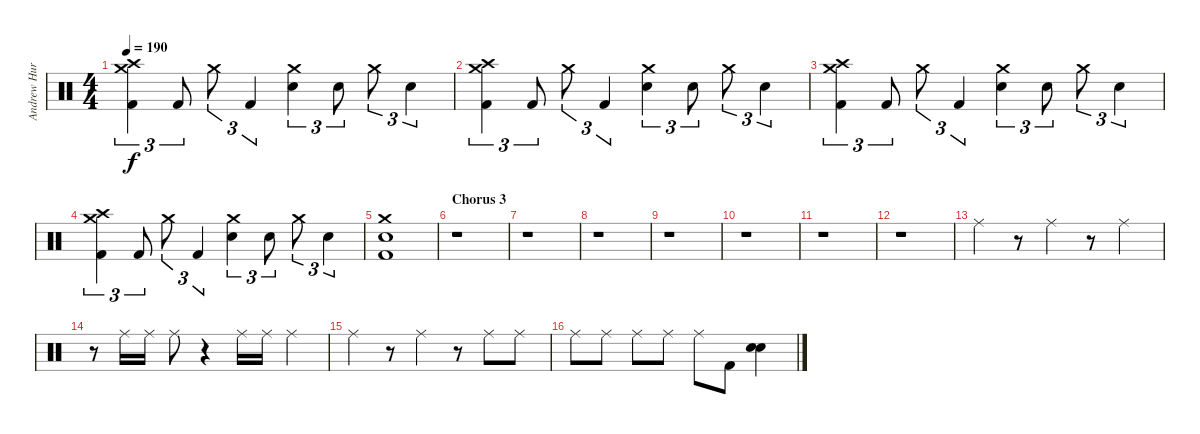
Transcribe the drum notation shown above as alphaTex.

\track ("Andrew Hurley (Drums)" "Andrew Hur") {instrument percussion}
\staff {score}
\articulation defaults
\ts (4 4)
\tempo 190
\clef neutral
\ks c
("Crash high (hit)" "Crash medium (hit)" "Kick (hit) 2").4{tu (3 2) dy f} "Kick (hit) 2".8{tu (3 2)} "Crash medium (hit)".8{tu (3 2)} "Kick (hit) 2".4{tu (3 2)} ("Crash medium (hit)" "Electric Snare (hit)").4{tu (3 2)} "Electric Snare (hit)".8{tu (3 2)} "Crash medium (hit)".8{tu (3 2)} "Electric Snare (hit)".4{tu (3 2)} |
("Crash high (hit)" "Crash medium (hit)" "Kick (hit) 2").4{tu (3 2)} "Kick (hit) 2".8{tu (3 2)} "Crash medium (hit)".8{tu (3 2)} "Kick (hit) 2".4{tu (3 2)} ("Crash medium (hit)" "Electric Snare (hit)").4{tu (3 2)} "Electric Snare (hit)".8{tu (3 2)} "Crash medium (hit)".8{tu (3 2)} "Electric Snare (hit)".4{tu (3 2)} |
("Crash high (hit)" "Crash medium (hit)" "Kick (hit) 2").4{tu (3 2)} "Kick (hit) 2".8{tu (3 2)} "Crash medium (hit)".8{tu (3 2)} "Kick (hit) 2".4{tu (3 2)} ("Crash medium (hit)" "Electric Snare (hit)").4{tu (3 2)} "Electric Snare (hit)".8{tu (3 2)} "Crash medium (hit)".8{tu (3 2)} "Electric Snare (hit)".4{tu (3 2)} |
("Crash high (hit)" "Crash medium (hit)" "Kick (hit) 2").4{tu (3 2)} "Kick (hit) 2".8{tu (3 2)} "Crash medium (hit)".8{tu (3 2)} "Kick (hit) 2".4{tu (3 2)} ("Crash medium (hit)" "Electric Snare (hit)").4{tu (3 2)} "Electric Snare (hit)".8{tu (3 2)} "Crash medium (hit)".8{tu (3 2)} "Electric Snare (hit)".4{tu (3 2)} |
("Crash medium (hit)" "Electric Snare (hit)" "Kick (hit) 2").1 |
\section ("" "Chorus 3")
r.1 |
r.1 |
r.1 |
r.1 |
r.1 |
r.1 |
r.1 |
"Ride (middle)".4 r.8 "Ride (middle)".4 r.8 "Ride (middle)".4 |
r.8 "Ride (middle)".16 "Ride (middle)".16 "Ride (middle)".8 r.4 "Ride (middle)".16 "Ride (middle)".16 "Ride (middle)".4 |
"Ride (middle)".4 r.8 "Ride (middle)".4 r.8 "Ride (middle)".8 "Ride (middle)".8 |
"Ride (middle)".8 "Ride (middle)".8 "Ride (middle)".8 "Ride (middle)".8 "Ride (middle)".8 "Kick (hit) 2".8 ("Hand Clap (hit)" "Electric Snare (hit)").4
